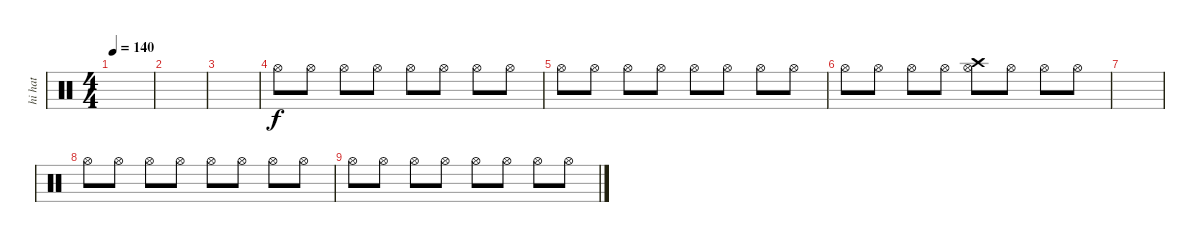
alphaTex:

\track ("hi hat" "hi hat") {instrument percussion}
\staff {score}
\articulation defaults
\ts (4 4)
\tempo 140
\clef neutral
\ks c
|
|
|
"Hi-Hat (open)".8{dy f} "Hi-Hat (open)".8 "Hi-Hat (open)".8 "Hi-Hat (open)".8 "Hi-Hat (open)".8 "Hi-Hat (open)".8 "Hi-Hat (open)".8 "Hi-Hat (open)".8 |
"Hi-Hat (open)".8 "Hi-Hat (open)".8 "Hi-Hat (open)".8 "Hi-Hat (open)".8 "Hi-Hat (open)".8 "Hi-Hat (open)".8 "Hi-Hat (open)".8 "Hi-Hat (open)".8 |
"Hi-Hat (open)".8 "Hi-Hat (open)".8 "Hi-Hat (open)".8 "Hi-Hat (open)".8 ("Crash high (hit)" "Hi-Hat (open)").8 "Hi-Hat (open)".8 "Hi-Hat (open)".8 "Hi-Hat (open)".8 |
|
"Hi-Hat (open)".8 "Hi-Hat (open)".8 "Hi-Hat (open)".8 "Hi-Hat (open)".8 "Hi-Hat (open)".8 "Hi-Hat (open)".8 "Hi-Hat (open)".8 "Hi-Hat (open)".8 |
"Hi-Hat (open)".8 "Hi-Hat (open)".8 "Hi-Hat (open)".8 "Hi-Hat (open)".8 "Hi-Hat (open)".8 "Hi-Hat (open)".8 "Hi-Hat (open)".8 "Hi-Hat (open)".8
